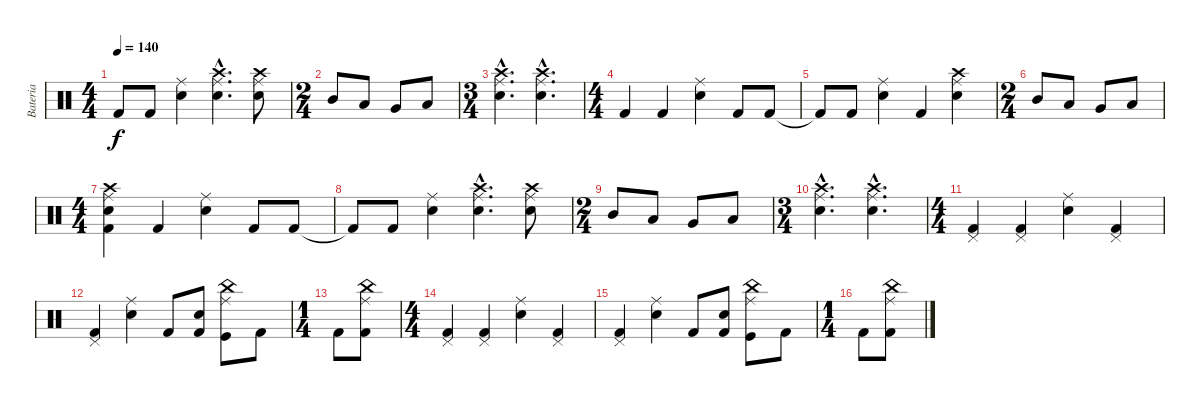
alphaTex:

\track ("Bateria" "Bateria") {instrument percussion}
\staff {score}
\articulation defaults
\ts (4 4)
\tempo 140
\clef neutral
\ks c "Kick (hit) 2"{t}.8{dy f} "Kick (hit) 2".8
("Electric Snare (hit)" "Ride (middle)").4 ("Electric Snare (hit)"{hac} "Ride (middle)"{hac} "Crash high (hit)"{hac}).4{d} ("Electric Snare (hit)" "Ride (middle)" "Crash high (hit)").8 |
\ts (2 4)
"Mid Tom (hit)".8 "Low Tom (hit)".8 "Very Low Tom (hit)".8 "Low Floor Tom (hit)".8 |
\ts (3 4)
("Electric Snare (hit)"{hac} "Ride (middle)"{hac} "Crash high (hit)"{hac}).4{d} ("Electric Snare (hit)"{hac} "Ride (middle)"{hac} "Crash high (hit)"{hac}).4{d} |
\ts (4 4)
"Kick (hit) 2".4 "Kick (hit) 2".4 ("Electric Snare (hit)" "Ride (middle)").4 "Kick (hit) 2".8 "Kick (hit) 2".8 |
"Kick (hit) 2"{t}.8 "Kick (hit) 2".8 ("Electric Snare (hit)" "Ride (middle)").4 "Kick (hit) 2".4 ("Electric Snare (hit)" "Ride (middle)" "Crash high (hit)").4 |
\ts (2 4)
"Mid Tom (hit)".8 "Low Tom (hit)".8 "Very Low Tom (hit)".8 "Low Floor Tom (hit)".8 |
\ts (4 4)
("Kick (hit) 2" "Electric Snare (hit)" "Ride (middle)" "Crash high (hit)").4 "Kick (hit) 2".4 ("Electric Snare (hit)" "Ride (middle)").4 "Kick (hit) 2".8 "Kick (hit) 2".8 |
"Kick (hit) 2"{t}.8 "Kick (hit) 2".8 ("Electric Snare (hit)" "Ride (middle)").4 ("Electric Snare (hit)"{hac} "Ride (middle)"{hac} "Crash high (hit)"{hac}).4{d} ("Electric Snare (hit)" "Ride (middle)" "Crash high (hit)").8 |
\ts (2 4)
"Mid Tom (hit)".8 "Low Tom (hit)".8 "Very Low Tom (hit)".8 "Low Floor Tom (hit)".8 |
\ts (3 4)
("Electric Snare (hit)"{hac} "Ride (middle)"{hac} "Crash high (hit)"{hac}).4{d} ("Electric Snare (hit)"{hac} "Ride (middle)"{hac} "Crash high (hit)"{hac}).4{d} |
\ts (4 4)
("Pedal Hi-Hat (hit)" "Kick (hit) 2").4 ("Pedal Hi-Hat (hit)" "Kick (hit) 2").4 ("Electric Snare (hit)" "Ride (middle)").4 ("Pedal Hi-Hat (hit)" "Kick (hit) 2").4 |
("Pedal Hi-Hat (hit)" "Kick (hit) 2").4 ("Electric Snare (hit)" "Ride (middle)").4 "Kick (hit) 2".8 ("Kick (hit) 2" "Electric Snare (hit)").8 ("Kick (hit)" "Ride (middle)" "China (hit)").8 "Kick (hit) 2".8 |
\ts (1 4)
"Kick (hit) 2".8 ("Kick (hit) 2" "Ride (middle)" "China (hit)").8 |
\ts (4 4)
("Pedal Hi-Hat (hit)" "Kick (hit) 2").4 ("Pedal Hi-Hat (hit)" "Kick (hit) 2").4 ("Electric Snare (hit)" "Ride (middle)").4 ("Pedal Hi-Hat (hit)" "Kick (hit) 2").4 |
("Pedal Hi-Hat (hit)" "Kick (hit) 2").4 ("Electric Snare (hit)" "Ride (middle)").4 "Kick (hit) 2".8 ("Kick (hit) 2" "Electric Snare (hit)").8 ("Kick (hit)" "Ride (middle)" "China (hit)").8 "Kick (hit) 2".8 |
\ts (1 4)
"Kick (hit) 2".8 ("Kick (hit) 2" "Ride (middle)" "China (hit)").8
